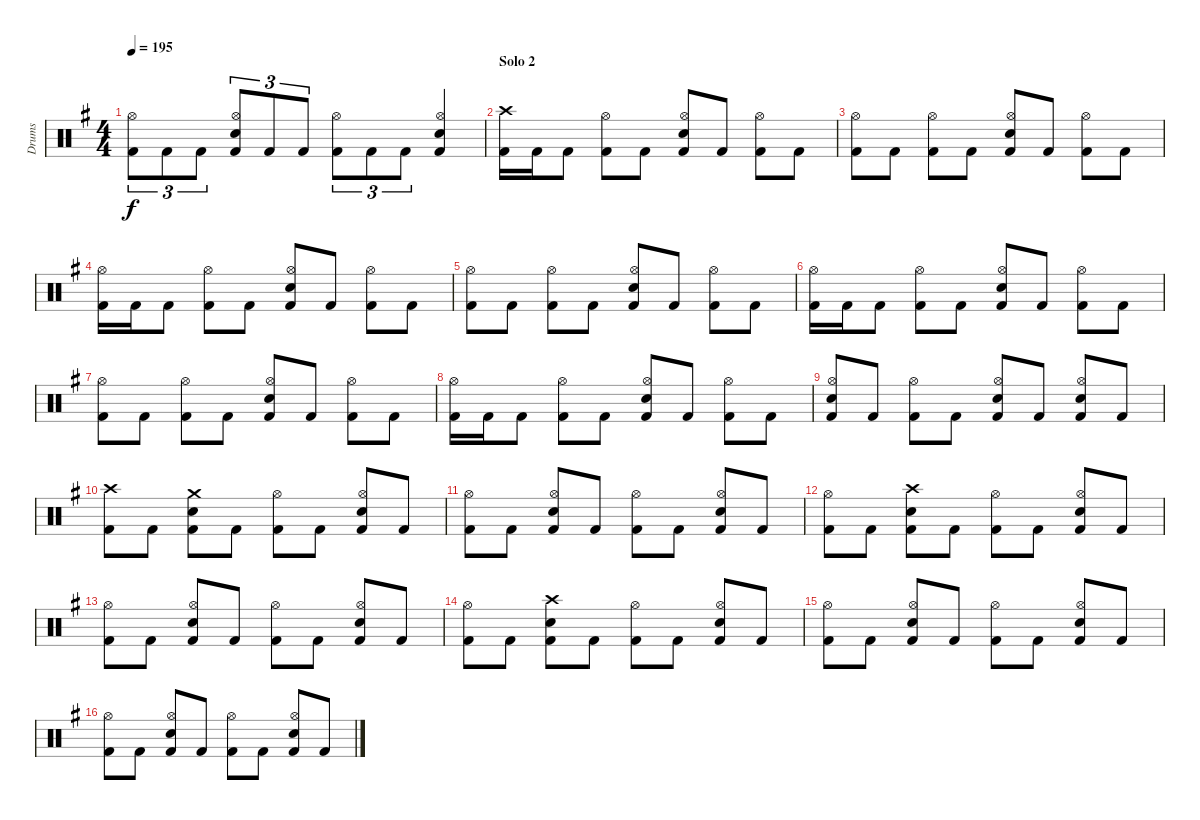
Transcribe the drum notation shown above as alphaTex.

\track ("Drums" "Drums") {instrument percussion}
\staff {score}
\articulation defaults
\ts (4 4)
\tempo 195
\clef neutral
\ks eminor
("Kick (hit) 2" "Hi-Hat (open)").8{tu (3 2) dy f} "Kick (hit) 2".8{tu (3 2)} "Kick (hit) 2".8{tu (3 2)} ("Kick (hit) 2" "Electric Snare (hit)" "Hi-Hat (open)").8{tu (3 2)} "Kick (hit) 2".8{tu (3 2)} "Kick (hit) 2".8{tu (3 2)} ("Kick (hit) 2" "Hi-Hat (open)").8{tu (3 2)} "Kick (hit) 2".8{tu (3 2)} "Kick (hit) 2".8{tu (3 2)} ("Kick (hit) 2" "Electric Snare (hit)" "Hi-Hat (open)").4 |
\section ("" "Solo 2")
("Kick (hit) 2" "Crash high (hit)").16 "Kick (hit) 2".16 "Kick (hit) 2".8 ("Kick (hit) 2" "Hi-Hat (open)").8 "Kick (hit) 2".8 ("Kick (hit) 2" "Electric Snare (hit)" "Hi-Hat (open)").8 "Kick (hit) 2".8 ("Kick (hit) 2" "Hi-Hat (open)").8 "Kick (hit) 2".8 |
("Kick (hit) 2" "Hi-Hat (open)").8 "Kick (hit) 2".8 ("Kick (hit) 2" "Hi-Hat (open)").8 "Kick (hit) 2".8 ("Kick (hit) 2" "Electric Snare (hit)" "Hi-Hat (open)").8 "Kick (hit) 2".8 ("Kick (hit) 2" "Hi-Hat (open)").8 "Kick (hit) 2".8 |
("Kick (hit) 2" "Hi-Hat (open)").16 "Kick (hit) 2".16 "Kick (hit) 2".8 ("Kick (hit) 2" "Hi-Hat (open)").8 "Kick (hit) 2".8 ("Kick (hit) 2" "Electric Snare (hit)" "Hi-Hat (open)").8 "Kick (hit) 2".8 ("Kick (hit) 2" "Hi-Hat (open)").8 "Kick (hit) 2".8 |
("Kick (hit) 2" "Hi-Hat (open)").8 "Kick (hit) 2".8 ("Kick (hit) 2" "Hi-Hat (open)").8 "Kick (hit) 2".8 ("Kick (hit) 2" "Electric Snare (hit)" "Hi-Hat (open)").8 "Kick (hit) 2".8 ("Kick (hit) 2" "Hi-Hat (open)").8 "Kick (hit) 2".8 |
("Kick (hit) 2" "Hi-Hat (open)").16 "Kick (hit) 2".16 "Kick (hit) 2".8 ("Kick (hit) 2" "Hi-Hat (open)").8 "Kick (hit) 2".8 ("Kick (hit) 2" "Electric Snare (hit)" "Hi-Hat (open)").8 "Kick (hit) 2".8 ("Kick (hit) 2" "Hi-Hat (open)").8 "Kick (hit) 2".8 |
("Kick (hit) 2" "Hi-Hat (open)").8 "Kick (hit) 2".8 ("Kick (hit) 2" "Hi-Hat (open)").8 "Kick (hit) 2".8 ("Kick (hit) 2" "Electric Snare (hit)" "Hi-Hat (open)").8 "Kick (hit) 2".8 ("Kick (hit) 2" "Hi-Hat (open)").8 "Kick (hit) 2".8 |
("Kick (hit) 2" "Hi-Hat (open)").16 "Kick (hit) 2".16 "Kick (hit) 2".8 ("Kick (hit) 2" "Hi-Hat (open)").8 "Kick (hit) 2".8 ("Kick (hit) 2" "Electric Snare (hit)" "Hi-Hat (open)").8 "Kick (hit) 2".8 ("Kick (hit) 2" "Hi-Hat (open)").8 "Kick (hit) 2".8 |
("Kick (hit) 2" "Electric Snare (hit)" "Hi-Hat (open)").8 "Kick (hit) 2".8 ("Kick (hit) 2" "Hi-Hat (open)").8 "Kick (hit) 2".8 ("Kick (hit) 2" "Electric Snare (hit)" "Hi-Hat (open)").8 "Kick (hit) 2".8 ("Kick (hit) 2" "Electric Snare (hit)" "Hi-Hat (open)").8 "Kick (hit) 2".8 |
\section ("" "")
("Kick (hit) 2" "Crash high (hit)").8 "Kick (hit) 2".8 ("Kick (hit) 2" "Electric Snare (hit)" "Crash medium (hit)").8 "Kick (hit) 2".8 ("Kick (hit) 2" "Hi-Hat (open)").8 "Kick (hit) 2".8 ("Kick (hit) 2" "Electric Snare (hit)" "Hi-Hat (open)").8 "Kick (hit) 2".8 |
("Kick (hit) 2" "Hi-Hat (open)").8 "Kick (hit) 2".8 ("Kick (hit) 2" "Electric Snare (hit)" "Hi-Hat (open)").8 "Kick (hit) 2".8 ("Kick (hit) 2" "Hi-Hat (open)").8 "Kick (hit) 2".8 ("Kick (hit) 2" "Electric Snare (hit)" "Hi-Hat (open)").8 "Kick (hit) 2".8 |
("Kick (hit) 2" "Hi-Hat (open)").8 "Kick (hit) 2".8 ("Kick (hit) 2" "Electric Snare (hit)" "Crash high (hit)").8 "Kick (hit) 2".8 ("Kick (hit) 2" "Hi-Hat (open)").8 "Kick (hit) 2".8 ("Kick (hit) 2" "Electric Snare (hit)" "Hi-Hat (open)").8 "Kick (hit) 2".8 |
("Kick (hit) 2" "Hi-Hat (open)").8 "Kick (hit) 2".8 ("Kick (hit) 2" "Electric Snare (hit)" "Hi-Hat (open)").8 "Kick (hit) 2".8 ("Kick (hit) 2" "Hi-Hat (open)").8 "Kick (hit) 2".8 ("Kick (hit) 2" "Electric Snare (hit)" "Hi-Hat (open)").8 "Kick (hit) 2".8 |
("Kick (hit) 2" "Hi-Hat (open)").8 "Kick (hit) 2".8 ("Kick (hit) 2" "Electric Snare (hit)" "Crash high (hit)").8 "Kick (hit) 2".8 ("Kick (hit) 2" "Hi-Hat (open)").8 "Kick (hit) 2".8 ("Kick (hit) 2" "Electric Snare (hit)" "Hi-Hat (open)").8 "Kick (hit) 2".8 |
("Kick (hit) 2" "Hi-Hat (open)").8 "Kick (hit) 2".8 ("Kick (hit) 2" "Electric Snare (hit)" "Hi-Hat (open)").8 "Kick (hit) 2".8 ("Kick (hit) 2" "Hi-Hat (open)").8 "Kick (hit) 2".8 ("Kick (hit) 2" "Electric Snare (hit)" "Hi-Hat (open)").8 "Kick (hit) 2".8 |
("Kick (hit) 2" "Hi-Hat (open)").8 "Kick (hit) 2".8 ("Kick (hit) 2" "Electric Snare (hit)" "Hi-Hat (open)").8 "Kick (hit) 2".8 ("Kick (hit) 2" "Hi-Hat (open)").8 "Kick (hit) 2".8 ("Kick (hit) 2" "Electric Snare (hit)" "Hi-Hat (open)").8 "Kick (hit) 2".8
